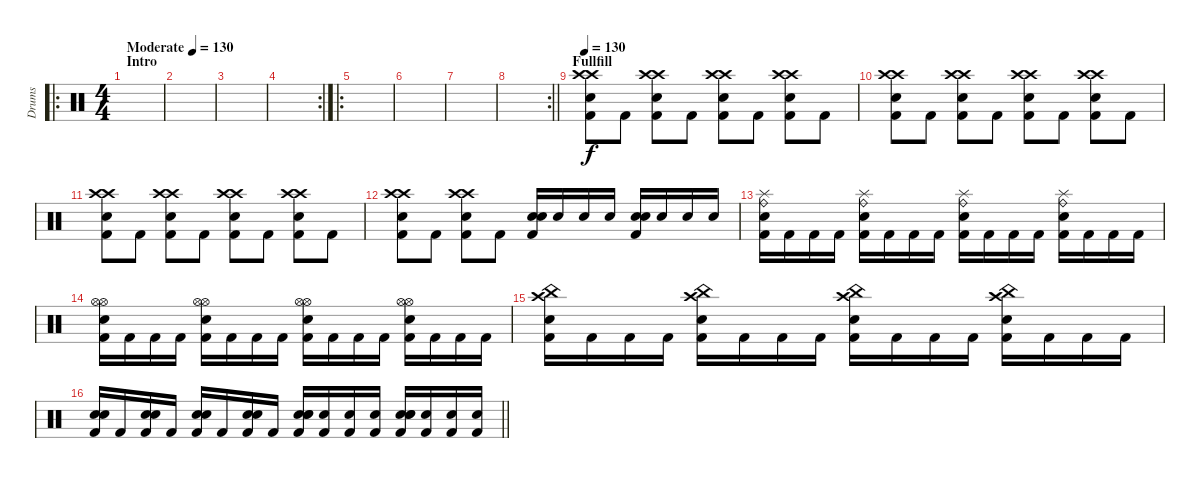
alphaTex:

\track ("Drums" "Drums") {instrument percussion}
\staff {score}
\articulation defaults
\ro
\ts (4 4)
\section ("" "Intro")
\tempo (130 "Moderate")
\clef neutral
\ks c
|
|
|
\rc 2
|
\ro
|
|
|
\rc 2
\barLineRight lightlight
|
\section ("" "Fullfill")
\tempo 130
("Crash high (hit)" "Crash high (hit)" "Electric Snare (hit)" "Kick (hit) 2").8 "Kick (hit) 2".8 ("Crash high (hit)" "Crash high (hit)" "Electric Snare (hit)" "Kick (hit) 2").8 "Kick (hit) 2".8 ("Crash high (hit)" "Crash high (hit)" "Electric Snare (hit)" "Kick (hit) 2").8 "Kick (hit) 2".8 ("Crash high (hit)" "Crash high (hit)" "Electric Snare (hit)" "Kick (hit) 2").8 "Kick (hit) 2".8 |
("Crash high (hit)" "Crash high (hit)" "Electric Snare (hit)" "Kick (hit) 2").8 "Kick (hit) 2".8 ("Crash high (hit)" "Crash high (hit)" "Electric Snare (hit)" "Kick (hit) 2").8 "Kick (hit) 2".8 ("Crash high (hit)" "Crash high (hit)" "Electric Snare (hit)" "Kick (hit) 2").8 "Kick (hit) 2".8 ("Crash high (hit)" "Crash high (hit)" "Electric Snare (hit)" "Kick (hit) 2").8 "Kick (hit) 2".8 |
("Crash high (hit)" "Crash high (hit)" "Electric Snare (hit)" "Kick (hit) 2").8 "Kick (hit) 2".8 ("Crash high (hit)" "Crash high (hit)" "Electric Snare (hit)" "Kick (hit) 2").8 "Kick (hit) 2".8 ("Crash high (hit)" "Crash high (hit)" "Electric Snare (hit)" "Kick (hit) 2").8 "Kick (hit) 2".8 ("Crash high (hit)" "Crash high (hit)" "Electric Snare (hit)" "Kick (hit) 2").8 "Kick (hit) 2".8 |
("Crash high (hit)" "Crash high (hit)" "Electric Snare (hit)" "Kick (hit) 2").8 "Kick (hit) 2".8 ("Crash high (hit)" "Crash high (hit)" "Electric Snare (hit)" "Kick (hit) 2").8 "Kick (hit) 2".8 ("Kick (hit) 2" "Electric Snare (hit)" "Electric Snare (hit)").16 "Electric Snare (hit)".16 "Electric Snare (hit)".16 "Electric Snare (hit)".16 ("Kick (hit) 2" "Electric Snare (hit)" "Electric Snare (hit)").16 "Electric Snare (hit)".16 "Electric Snare (hit)".16 "Electric Snare (hit)".16 |
("Splash (hit)" "Ride (bell)" "Electric Snare (hit)" "Kick (hit) 2").16 "Kick (hit) 2".16 "Kick (hit) 2".16 "Kick (hit) 2".16 ("Splash (hit)" "Ride (bell)" "Electric Snare (hit)" "Kick (hit) 2").16 "Kick (hit) 2".16 "Kick (hit) 2".16 "Kick (hit) 2".16 ("Splash (hit)" "Ride (bell)" "Electric Snare (hit)" "Kick (hit) 2").16 "Kick (hit) 2".16 "Kick (hit) 2".16 "Kick (hit) 2".16 ("Splash (hit)" "Ride (bell)" "Electric Snare (hit)" "Kick (hit) 2").16 "Kick (hit) 2".16 "Kick (hit) 2".16 "Kick (hit) 2".16 |
("Hi-Hat (open)" "Hi-Hat (open)" "Electric Snare (hit)" "Kick (hit) 2").16 "Kick (hit) 2".16 "Kick (hit) 2".16 "Kick (hit) 2".16 ("Hi-Hat (open)" "Hi-Hat (open)" "Electric Snare (hit)" "Kick (hit) 2").16 "Kick (hit) 2".16 "Kick (hit) 2".16 "Kick (hit) 2".16 ("Hi-Hat (open)" "Hi-Hat (open)" "Electric Snare (hit)" "Kick (hit) 2").16 "Kick (hit) 2".16 "Kick (hit) 2".16 "Kick (hit) 2".16 ("Hi-Hat (open)" "Hi-Hat (open)" "Electric Snare (hit)" "Kick (hit) 2").16 "Kick (hit) 2".16 "Kick (hit) 2".16 "Kick (hit) 2".16 |
("China (hit)" "Crash high (hit)" "Electric Snare (hit)" "Kick (hit) 2").16 "Kick (hit) 2".16 "Kick (hit) 2".16 "Kick (hit) 2".16 ("China (hit)" "Crash high (hit)" "Electric Snare (hit)" "Kick (hit) 2").16 "Kick (hit) 2".16 "Kick (hit) 2".16 "Kick (hit) 2".16 ("China (hit)" "Crash high (hit)" "Electric Snare (hit)" "Kick (hit) 2").16 "Kick (hit) 2".16 "Kick (hit) 2".16 "Kick (hit) 2".16 ("China (hit)" "Crash high (hit)" "Electric Snare (hit)" "Kick (hit) 2").16 "Kick (hit) 2".16 "Kick (hit) 2".16 "Kick (hit) 2".16 |
\barLineRight lightlight
("Snare (hit) 2" "Electric Snare (hit)" "Kick (hit) 2").16 "Kick (hit) 2".16 ("Snare (hit) 2" "Electric Snare (hit)" "Kick (hit) 2").16 "Kick (hit) 2".16 ("Snare (hit) 2" "Electric Snare (hit)" "Kick (hit) 2").16 "Kick (hit) 2".16 ("Snare (hit) 2" "Electric Snare (hit)" "Kick (hit) 2").16 "Kick (hit) 2".16 ("Snare (hit) 2" "Snare (hit) 2" "Electric Snare (hit)" "Kick (hit) 2").16 ("Electric Snare (hit)" "Kick (hit) 2").16 ("Electric Snare (hit)" "Kick (hit) 2").16 ("Electric Snare (hit)" "Kick (hit) 2").16 ("Snare (hit) 2" "Snare (hit) 2" "Electric Snare (hit)" "Kick (hit) 2").16 ("Electric Snare (hit)" "Kick (hit) 2").16 ("Electric Snare (hit)" "Kick (hit) 2").16 ("Electric Snare (hit)" "Kick (hit) 2").16
